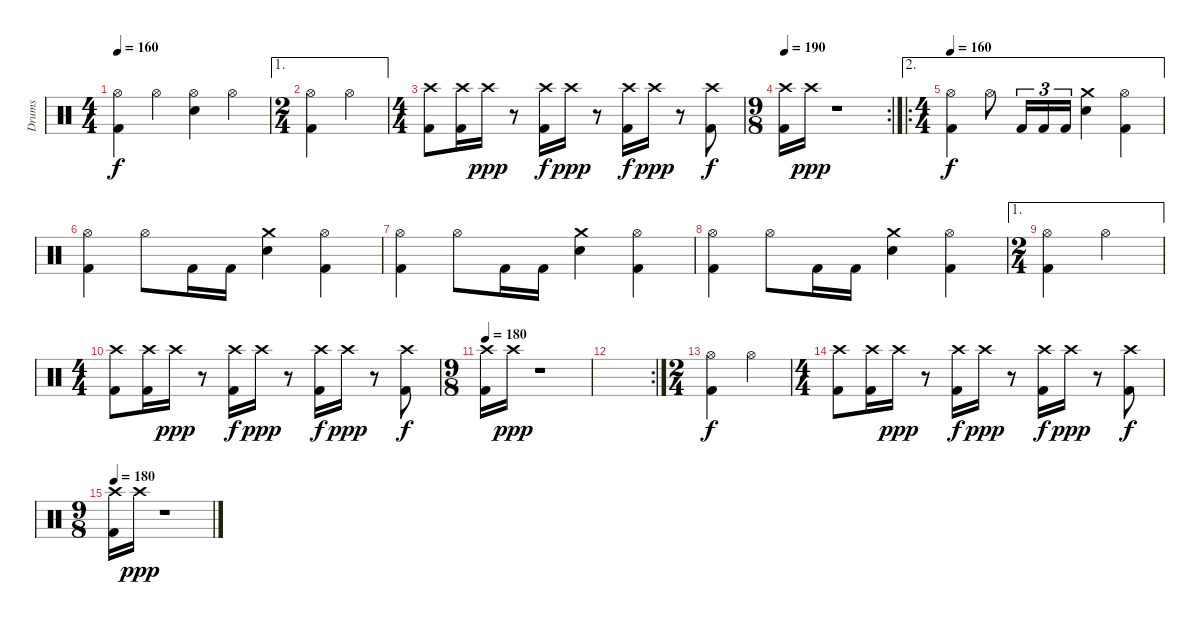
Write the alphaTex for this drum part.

\track ("Drums" "Drums") {instrument percussion}
\staff {score}
\articulation defaults
\ts (4 4)
\tempo 160
\clef neutral
\ks c
("Hi-Hat (open)" "Kick (hit) 2").4{dy f} "Hi-Hat (open)".4 ("Hi-Hat (open)" "Electric Snare (hit)").4 "Hi-Hat (open)".4 |
\ae 1
\ts (2 4)
("Hi-Hat (open)" "Kick (hit) 2").4 "Hi-Hat (open)".4 |
\ts (4 4)
("Crash high (hit)" "Kick (hit) 2").8 ("Crash high (hit)" "Kick (hit) 2").16 "Crash high (hit)".16{dy ppp} r.8 ("Crash high (hit)" "Kick (hit) 2").16{dy f} "Crash high (hit)".16{dy ppp} r.8 ("Crash high (hit)" "Kick (hit) 2").16{dy f} "Crash high (hit)".16{dy ppp} r.8 ("Crash high (hit)" "Kick (hit) 2").8{dy f} |
\rc 2
\ts (9 8)
\tempo 190
("Crash high (hit)" "Kick (hit) 2").16 "Crash high (hit)".16{dy ppp} r.1 |
\ae 2
\ro
\ts (4 4)
\tempo 160
("Hi-Hat (open)" "Kick (hit) 2").4{dy f} "Hi-Hat (open)".8 "Kick (hit) 2".16{tu (3 2)} "Kick (hit) 2".16{tu (3 2)} "Kick (hit) 2".16{tu (3 2)} ("Crash medium (hit)" "Electric Snare (hit)").4 ("Hi-Hat (open)" "Kick (hit) 2").4 |
("Hi-Hat (open)" "Kick (hit) 2").4 "Hi-Hat (open)".8 "Kick (hit) 2".16 "Kick (hit) 2".16 ("Crash medium (hit)" "Electric Snare (hit)").4 ("Hi-Hat (open)" "Kick (hit) 2").4 |
("Hi-Hat (open)" "Kick (hit) 2").4 "Hi-Hat (open)".8 "Kick (hit) 2".16 "Kick (hit) 2".16 ("Crash medium (hit)" "Electric Snare (hit)").4 ("Hi-Hat (open)" "Kick (hit) 2").4 |
("Hi-Hat (open)" "Kick (hit) 2").4 "Hi-Hat (open)".8 "Kick (hit) 2".16 "Kick (hit) 2".16 ("Crash medium (hit)" "Electric Snare (hit)").4 ("Hi-Hat (open)" "Kick (hit) 2").4 |
\ae 1
\ts (2 4)
("Hi-Hat (open)" "Kick (hit) 2").4 "Hi-Hat (open)".4 |
\ts (4 4)
("Crash high (hit)" "Kick (hit) 2").8 ("Crash high (hit)" "Kick (hit) 2").16 "Crash high (hit)".16{dy ppp} r.8 ("Crash high (hit)" "Kick (hit) 2").16{dy f} "Crash high (hit)".16{dy ppp} r.8 ("Crash high (hit)" "Kick (hit) 2").16{dy f} "Crash high (hit)".16{dy ppp} r.8 ("Crash high (hit)" "Kick (hit) 2").8{dy f} |
\ts (9 8)
\tempo 180
("Crash high (hit)" "Kick (hit) 2").16 "Crash high (hit)".16{dy ppp} r.1 |
\rc 2
|
\ts (2 4)
("Hi-Hat (open)" "Kick (hit) 2").4{dy f} "Hi-Hat (open)".4 |
\ts (4 4)
("Crash high (hit)" "Kick (hit) 2").8 ("Crash high (hit)" "Kick (hit) 2").16 "Crash high (hit)".16{dy ppp} r.8 ("Crash high (hit)" "Kick (hit) 2").16{dy f} "Crash high (hit)".16{dy ppp} r.8 ("Crash high (hit)" "Kick (hit) 2").16{dy f} "Crash high (hit)".16{dy ppp} r.8 ("Crash high (hit)" "Kick (hit) 2").8{dy f} |
\ts (9 8)
\tempo 190
\tempo 180
("Crash high (hit)" "Kick (hit) 2").16 "Crash high (hit)".16{dy ppp} r.1
